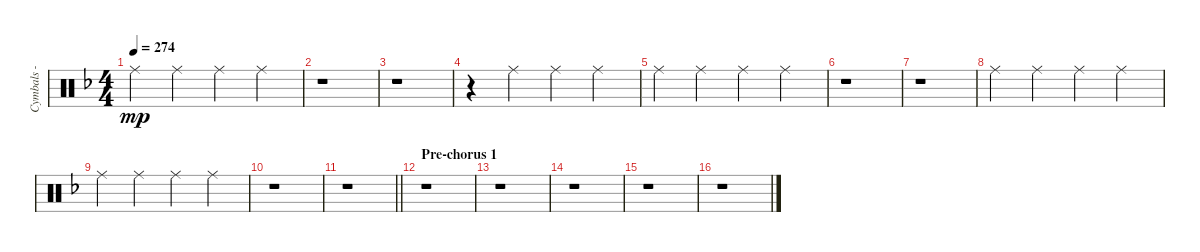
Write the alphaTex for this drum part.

\track ("Cymbals - ride" "Cymbals - ") {instrument percussion}
\staff {score}
\articulation defaults
\ts (4 4)
\tempo 274
\clef neutral
\ks dminor "Ride (middle)".4{dy mp} "Ride (middle)".4 "Ride (middle)".4 "Ride (middle)".4
|
r.1 |
r.1 |
r.4 "Ride (middle)".4 "Ride (middle)".4 "Ride (middle)".4 |
"Ride (middle)".4 "Ride (middle)".4 "Ride (middle)".4 "Ride (middle)".4 |
r.1 |
r.1 |
"Ride (middle)".4 "Ride (middle)".4 "Ride (middle)".4 "Ride (middle)".4 |
"Ride (middle)".4 "Ride (middle)".4 "Ride (middle)".4 "Ride (middle)".4 |
r.1{volume 0} |
\barLineRight lightlight
r.1 |
\section ("" "Pre-chorus 1")
r.1 |
r.1 |
r.1 |
r.1 |
r.1
